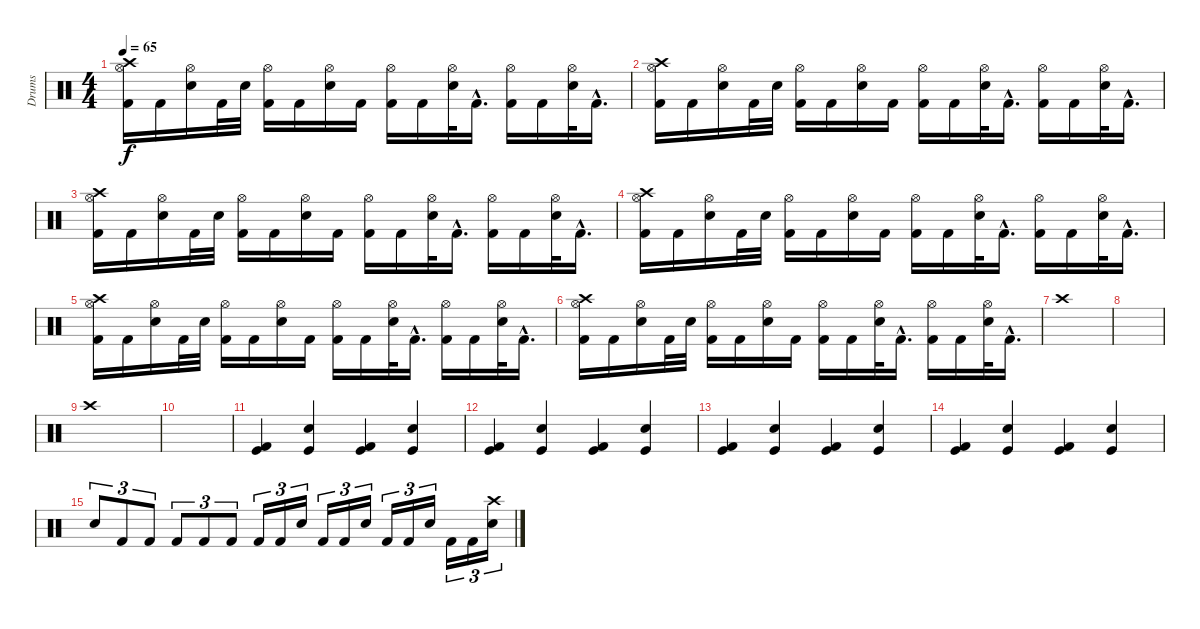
\track ("Drums" "Drums") {instrument percussion}
\staff {score}
\articulation defaults
\ts (4 4)
\tempo 65
\clef neutral
\ks c
("Crash high (hit)" "Hi-Hat (open)" "Kick (hit) 2").16{dy f} "Kick (hit) 2".16 ("Hi-Hat (open)" "Snare (hit) 2").16 "Kick (hit) 2".32 "Snare (hit) 2".32 ("Hi-Hat (open)" "Kick (hit) 2").16 "Kick (hit) 2".16 ("Hi-Hat (open)" "Snare (hit) 2").16 "Kick (hit) 2".16 ("Hi-Hat (open)" "Kick (hit) 2").16 "Kick (hit) 2".16 ("Hi-Hat (open)" "Snare (hit) 2").32 "Kick (hit) 2"{hac}.16{d} ("Hi-Hat (open)" "Kick (hit) 2").16 "Kick (hit) 2".16 ("Hi-Hat (open)" "Snare (hit) 2").32 "Kick (hit) 2"{hac}.16{d} |
("Crash high (hit)" "Hi-Hat (open)" "Kick (hit) 2").16 "Kick (hit) 2".16 ("Hi-Hat (open)" "Snare (hit) 2").16 "Kick (hit) 2".32 "Snare (hit) 2".32 ("Hi-Hat (open)" "Kick (hit) 2").16 "Kick (hit) 2".16 ("Hi-Hat (open)" "Snare (hit) 2").16 "Kick (hit) 2".16 ("Hi-Hat (open)" "Kick (hit) 2").16 "Kick (hit) 2".16 ("Hi-Hat (open)" "Snare (hit) 2").32 "Kick (hit) 2"{hac}.16{d} ("Hi-Hat (open)" "Kick (hit) 2").16 "Kick (hit) 2".16 ("Hi-Hat (open)" "Snare (hit) 2").32 "Kick (hit) 2"{hac}.16{d} |
("Crash high (hit)" "Hi-Hat (open)" "Kick (hit) 2").16 "Kick (hit) 2".16 ("Hi-Hat (open)" "Snare (hit) 2").16 "Kick (hit) 2".32 "Snare (hit) 2".32 ("Hi-Hat (open)" "Kick (hit) 2").16 "Kick (hit) 2".16 ("Hi-Hat (open)" "Snare (hit) 2").16 "Kick (hit) 2".16 ("Hi-Hat (open)" "Kick (hit) 2").16 "Kick (hit) 2".16 ("Hi-Hat (open)" "Snare (hit) 2").32 "Kick (hit) 2"{hac}.16{d} ("Hi-Hat (open)" "Kick (hit) 2").16 "Kick (hit) 2".16 ("Hi-Hat (open)" "Snare (hit) 2").32 "Kick (hit) 2"{hac}.16{d} |
("Crash high (hit)" "Hi-Hat (open)" "Kick (hit) 2").16 "Kick (hit) 2".16 ("Hi-Hat (open)" "Snare (hit) 2").16 "Kick (hit) 2".32 "Snare (hit) 2".32 ("Hi-Hat (open)" "Kick (hit) 2").16 "Kick (hit) 2".16 ("Hi-Hat (open)" "Snare (hit) 2").16 "Kick (hit) 2".16 ("Hi-Hat (open)" "Kick (hit) 2").16 "Kick (hit) 2".16 ("Hi-Hat (open)" "Snare (hit) 2").32 "Kick (hit) 2"{hac}.16{d} ("Hi-Hat (open)" "Kick (hit) 2").16 "Kick (hit) 2".16 ("Hi-Hat (open)" "Snare (hit) 2").32 "Kick (hit) 2"{hac}.16{d} |
("Crash high (hit)" "Hi-Hat (open)" "Kick (hit) 2").16 "Kick (hit) 2".16 ("Hi-Hat (open)" "Snare (hit) 2").16 "Kick (hit) 2".32 "Snare (hit) 2".32 ("Hi-Hat (open)" "Kick (hit) 2").16 "Kick (hit) 2".16 ("Hi-Hat (open)" "Snare (hit) 2").16 "Kick (hit) 2".16 ("Hi-Hat (open)" "Kick (hit) 2").16 "Kick (hit) 2".16 ("Hi-Hat (open)" "Snare (hit) 2").32 "Kick (hit) 2"{hac}.16{d} ("Hi-Hat (open)" "Kick (hit) 2").16 "Kick (hit) 2".16 ("Hi-Hat (open)" "Snare (hit) 2").32 "Kick (hit) 2"{hac}.16{d} |
("Crash high (hit)" "Hi-Hat (open)" "Kick (hit) 2").16 "Kick (hit) 2".16 ("Hi-Hat (open)" "Snare (hit) 2").16 "Kick (hit) 2".32 "Snare (hit) 2".32 ("Hi-Hat (open)" "Kick (hit) 2").16 "Kick (hit) 2".16 ("Hi-Hat (open)" "Snare (hit) 2").16 "Kick (hit) 2".16 ("Hi-Hat (open)" "Kick (hit) 2").16 "Kick (hit) 2".16 ("Hi-Hat (open)" "Snare (hit) 2").32 "Kick (hit) 2"{hac}.16{d} ("Hi-Hat (open)" "Kick (hit) 2").16 "Kick (hit) 2".16 ("Hi-Hat (open)" "Snare (hit) 2").32 "Kick (hit) 2"{hac}.16{d} |
"Crash high (hit)".1 |
|
"Crash high (hit)".1 |
|
("Kick (hit)" "Kick (hit) 2").4 ("Kick (hit)" "Snare (hit) 2").4 ("Kick (hit)" "Kick (hit) 2").4 ("Kick (hit)" "Snare (hit) 2").4 |
("Kick (hit)" "Kick (hit) 2").4 ("Kick (hit)" "Snare (hit) 2").4 ("Kick (hit)" "Kick (hit) 2").4 ("Kick (hit)" "Snare (hit) 2").4 |
("Kick (hit)" "Kick (hit) 2").4 ("Kick (hit)" "Snare (hit) 2").4 ("Kick (hit)" "Kick (hit) 2").4 ("Kick (hit)" "Snare (hit) 2").4 |
("Kick (hit)" "Kick (hit) 2").4 ("Kick (hit)" "Snare (hit) 2").4 ("Kick (hit)" "Kick (hit) 2").4 ("Kick (hit)" "Snare (hit) 2").4 |
"Snare (hit) 2".8{tu (3 2)} "Kick (hit) 2".8{tu (3 2)} "Kick (hit) 2".8{tu (3 2)} "Kick (hit) 2".8{tu (3 2)} "Kick (hit) 2".8{tu (3 2)} "Kick (hit) 2".8{tu (3 2)} "Kick (hit) 2".16{tu (3 2)} "Kick (hit) 2".16{tu (3 2)} "Snare (hit) 2".16{tu (3 2)} "Kick (hit) 2".16{tu (3 2)} "Kick (hit) 2".16{tu (3 2)} "Snare (hit) 2".16{tu (3 2)} "Kick (hit) 2".16{tu (3 2)} "Kick (hit) 2".16{tu (3 2)} "Snare (hit) 2".16{tu (3 2)} "Kick (hit) 2".16{tu (3 2)} "Kick (hit) 2".16{tu (3 2)} ("Crash high (hit)" "Snare (hit) 2").16{tu (3 2)}
